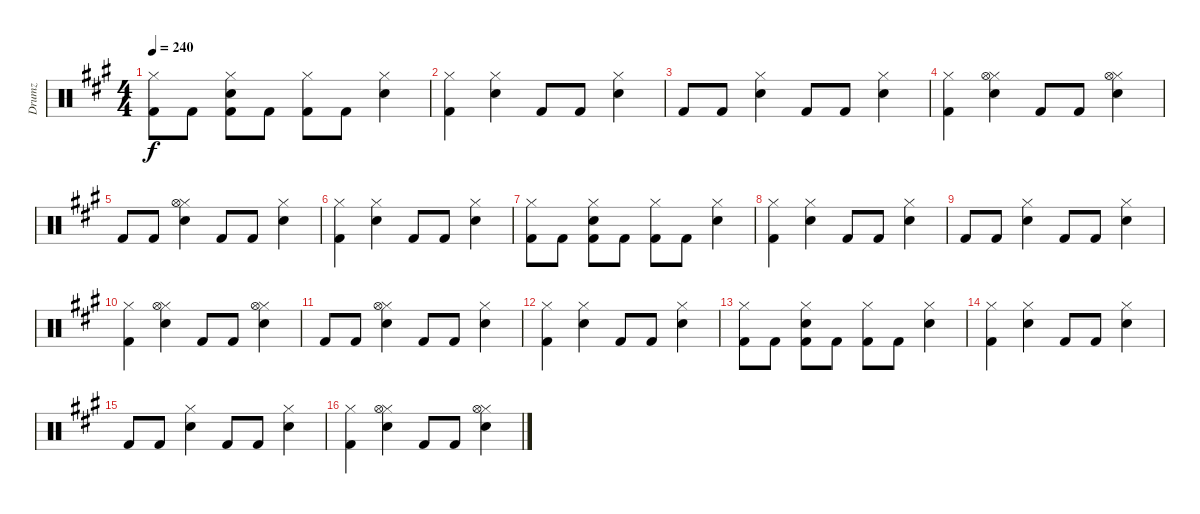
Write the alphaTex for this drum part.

\track ("Drumz" "Drumz") {instrument percussion}
\staff {score}
\articulation defaults
\ts (4 4)
\tempo 240
\clef neutral
\ks a
("Hi-Hat (closed)" "Kick (hit) 2").8{dy f} "Kick (hit) 2".8 ("Hi-Hat (closed)" "Electric Snare (hit)" "Kick (hit) 2").8 "Kick (hit) 2".8 ("Hi-Hat (closed)" "Kick (hit) 2").8 "Kick (hit) 2".8 ("Hi-Hat (closed)" "Electric Snare (hit)").4 |
("Hi-Hat (closed)" "Kick (hit) 2").4 ("Hi-Hat (closed)" "Electric Snare (hit)").4 "Kick (hit) 2".8 "Kick (hit) 2".8 ("Electric Snare (hit)" "Hi-Hat (closed)").4 |
"Kick (hit) 2".8 "Kick (hit) 2".8 ("Hi-Hat (closed)" "Electric Snare (hit)").4 "Kick (hit) 2".8 "Kick (hit) 2".8 ("Electric Snare (hit)" "Hi-Hat (closed)").4 |
("Hi-Hat (closed)" "Kick (hit) 2").4 ("Hi-Hat (closed)" "Hi-Hat (open)" "Electric Snare (hit)").4 "Kick (hit) 2".8 "Kick (hit) 2".8 ("Electric Snare (hit)" "Hi-Hat (closed)" "Hi-Hat (open)").4 |
"Kick (hit) 2".8 "Kick (hit) 2".8 ("Hi-Hat (closed)" "Electric Snare (hit)" "Hi-Hat (open)").4 "Kick (hit) 2".8 "Kick (hit) 2".8 ("Electric Snare (hit)" "Hi-Hat (closed)").4 |
("Hi-Hat (closed)" "Kick (hit) 2").4 ("Hi-Hat (closed)" "Electric Snare (hit)").4 "Kick (hit) 2".8 "Kick (hit) 2".8 ("Electric Snare (hit)" "Hi-Hat (closed)").4 |
("Hi-Hat (closed)" "Kick (hit) 2").8 "Kick (hit) 2".8 ("Hi-Hat (closed)" "Electric Snare (hit)" "Kick (hit) 2").8 "Kick (hit) 2".8 ("Hi-Hat (closed)" "Kick (hit) 2").8 "Kick (hit) 2".8 ("Hi-Hat (closed)" "Electric Snare (hit)").4 |
("Hi-Hat (closed)" "Kick (hit) 2").4 ("Hi-Hat (closed)" "Electric Snare (hit)").4 "Kick (hit) 2".8 "Kick (hit) 2".8 ("Electric Snare (hit)" "Hi-Hat (closed)").4 |
"Kick (hit) 2".8 "Kick (hit) 2".8 ("Hi-Hat (closed)" "Electric Snare (hit)").4 "Kick (hit) 2".8 "Kick (hit) 2".8 ("Electric Snare (hit)" "Hi-Hat (closed)").4 |
("Hi-Hat (closed)" "Kick (hit) 2").4 ("Hi-Hat (closed)" "Hi-Hat (open)" "Electric Snare (hit)").4 "Kick (hit) 2".8 "Kick (hit) 2".8 ("Electric Snare (hit)" "Hi-Hat (closed)" "Hi-Hat (open)").4 |
"Kick (hit) 2".8 "Kick (hit) 2".8 ("Hi-Hat (closed)" "Electric Snare (hit)" "Hi-Hat (open)").4 "Kick (hit) 2".8 "Kick (hit) 2".8 ("Electric Snare (hit)" "Hi-Hat (closed)").4 |
("Hi-Hat (closed)" "Kick (hit) 2").4 ("Hi-Hat (closed)" "Electric Snare (hit)").4 "Kick (hit) 2".8 "Kick (hit) 2".8 ("Electric Snare (hit)" "Hi-Hat (closed)").4 |
("Hi-Hat (closed)" "Kick (hit) 2").8 "Kick (hit) 2".8 ("Hi-Hat (closed)" "Electric Snare (hit)" "Kick (hit) 2").8 "Kick (hit) 2".8 ("Hi-Hat (closed)" "Kick (hit) 2").8 "Kick (hit) 2".8 ("Hi-Hat (closed)" "Electric Snare (hit)").4 |
("Hi-Hat (closed)" "Kick (hit) 2").4 ("Hi-Hat (closed)" "Electric Snare (hit)").4 "Kick (hit) 2".8 "Kick (hit) 2".8 ("Electric Snare (hit)" "Hi-Hat (closed)").4 |
"Kick (hit) 2".8 "Kick (hit) 2".8 ("Hi-Hat (closed)" "Electric Snare (hit)").4 "Kick (hit) 2".8 "Kick (hit) 2".8 ("Electric Snare (hit)" "Hi-Hat (closed)").4 |
("Hi-Hat (closed)" "Kick (hit) 2").4 ("Hi-Hat (closed)" "Hi-Hat (open)" "Electric Snare (hit)").4 "Kick (hit) 2".8 "Kick (hit) 2".8 ("Electric Snare (hit)" "Hi-Hat (closed)" "Hi-Hat (open)").4
